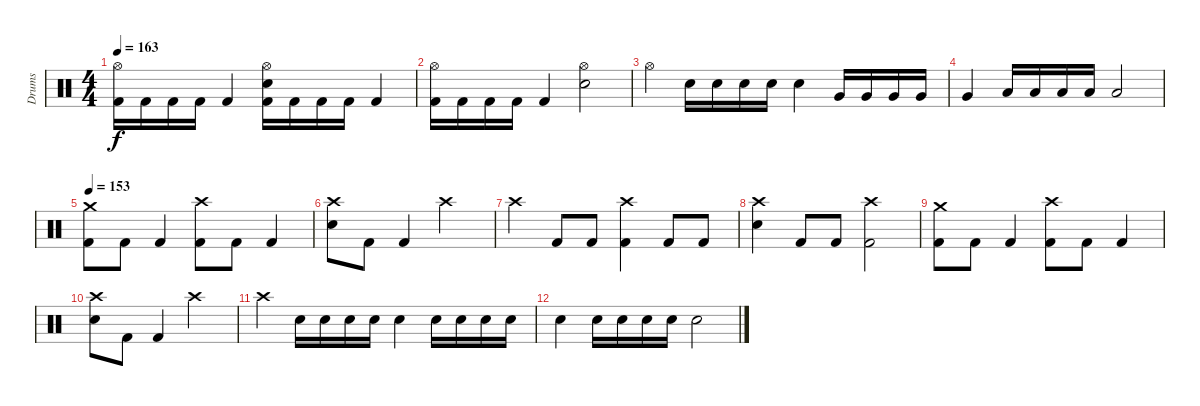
\track ("Drums" "Drums") {instrument percussion}
\staff
\articulation defaults
\ts (4 4)
\tempo 163
\clef neutral
\ks c
("Hi-Hat (open)" "Kick (hit) 2").16{dy f} "Kick (hit) 2".16 "Kick (hit) 2".16 "Kick (hit) 2".16 "Kick (hit) 2".4 ("Hi-Hat (open)" "Electric Snare (hit)" "Kick (hit) 2").16 "Kick (hit) 2".16 "Kick (hit) 2".16 "Kick (hit) 2".16 "Kick (hit) 2".4 |
("Hi-Hat (open)" "Kick (hit) 2").16 "Kick (hit) 2".16 "Kick (hit) 2".16 "Kick (hit) 2".16 "Kick (hit) 2".4 ("Hi-Hat (open)" "Electric Snare (hit)").2 |
"Hi-Hat (open)".4 "Electric Snare (hit)".16 "Electric Snare (hit)".16 "Electric Snare (hit)".16 "Electric Snare (hit)".16 "Electric Snare (hit)".4 "Very Low Tom (hit)".16 "Very Low Tom (hit)".16 "Very Low Tom (hit)".16 "Very Low Tom (hit)".16 |
"Very Low Tom (hit)".4 "Low Floor Tom (hit)".16 "Low Floor Tom (hit)".16 "Low Floor Tom (hit)".16 "Low Floor Tom (hit)".16 "Low Floor Tom (hit)".2 |
\tempo 153
("Crash medium (hit)" "Kick (hit) 2").8 "Kick (hit) 2".8 "Kick (hit) 2".4 ("Crash high (hit)" "Kick (hit) 2").8 "Kick (hit) 2".8 "Kick (hit) 2".4 |
("Crash high (hit)" "Electric Snare (hit)").8 "Kick (hit) 2".8 "Kick (hit) 2".4 "Crash high (hit)".2 |
"Crash high (hit)".4 "Kick (hit) 2".8 "Kick (hit) 2".8 ("Crash high (hit)" "Kick (hit) 2").4 "Kick (hit) 2".8 "Kick (hit) 2".8 |
("Crash high (hit)" "Electric Snare (hit)").4 "Kick (hit) 2".8 "Kick (hit) 2".8 ("Crash high (hit)" "Kick (hit) 2").2 |
("Crash medium (hit)" "Kick (hit) 2").8 "Kick (hit) 2".8 "Kick (hit) 2".4 ("Crash high (hit)" "Kick (hit) 2").8 "Kick (hit) 2".8 "Kick (hit) 2".4 |
("Crash high (hit)" "Electric Snare (hit)").8 "Kick (hit) 2".8 "Kick (hit) 2".4 "Crash high (hit)".2 |
"Crash high (hit)".4 "Electric Snare (hit)".16 "Electric Snare (hit)".16 "Electric Snare (hit)".16 "Electric Snare (hit)".16 "Electric Snare (hit)".4 "Electric Snare (hit)".16 "Electric Snare (hit)".16 "Electric Snare (hit)".16 "Electric Snare (hit)".16 |
"Electric Snare (hit)".4 "Electric Snare (hit)".16 "Electric Snare (hit)".16 "Electric Snare (hit)".16 "Electric Snare (hit)".16 "Electric Snare (hit)".2
